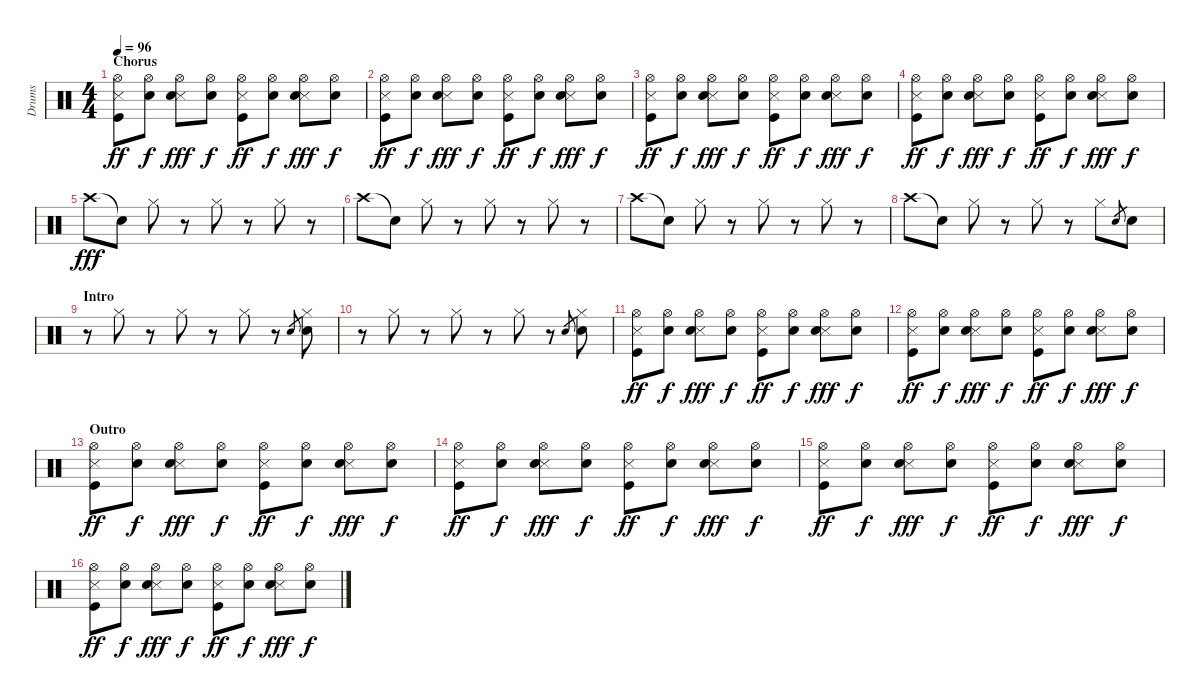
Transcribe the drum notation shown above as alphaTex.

\track ("Drums" "Drums") {instrument percussion}
\staff {score}
\articulation defaults
\ts (4 4)
\section ("" "Chorus")
\tempo 96
\clef neutral
\ks c
("Snare (side stick) 3" "Hi-Hat (open)" "Kick (hit)").8{dy ff} ("Hand Clap (hit)" "Hi-Hat (open)").8{dy f} ("Snare (side stick) 3" "Hi-Hat (open)" "Snare (hit) 2").8{dy fff} ("Hand Clap (hit)" "Hi-Hat (open)").8{dy f} ("Snare (side stick) 3" "Hi-Hat (open)" "Kick (hit)").8{dy ff} ("Hand Clap (hit)" "Hi-Hat (open)").8{dy f} ("Snare (side stick) 3" "Hi-Hat (open)" "Snare (hit) 2").8{dy fff} ("Hand Clap (hit)" "Hi-Hat (open)").8{dy f} |
("Snare (side stick) 3" "Hi-Hat (open)" "Kick (hit)").8{dy ff} ("Hand Clap (hit)" "Hi-Hat (open)").8{dy f} ("Snare (side stick) 3" "Hi-Hat (open)" "Snare (hit) 2").8{dy fff} ("Hand Clap (hit)" "Hi-Hat (open)").8{dy f} ("Snare (side stick) 3" "Hi-Hat (open)" "Kick (hit)").8{dy ff} ("Hand Clap (hit)" "Hi-Hat (open)").8{dy f} ("Snare (side stick) 3" "Hi-Hat (open)" "Snare (hit) 2").8{dy fff} ("Hand Clap (hit)" "Hi-Hat (open)").8{dy f} |
("Snare (side stick) 3" "Hi-Hat (open)" "Kick (hit)").8{dy ff} ("Hand Clap (hit)" "Hi-Hat (open)").8{dy f} ("Snare (side stick) 3" "Hi-Hat (open)" "Snare (hit) 2").8{dy fff} ("Hand Clap (hit)" "Hi-Hat (open)").8{dy f} ("Snare (side stick) 3" "Hi-Hat (open)" "Kick (hit)").8{dy ff} ("Hand Clap (hit)" "Hi-Hat (open)").8{dy f} ("Snare (side stick) 3" "Hi-Hat (open)" "Snare (hit) 2").8{dy fff} ("Hand Clap (hit)" "Hi-Hat (open)").8{dy f} |
("Snare (side stick) 3" "Hi-Hat (open)" "Kick (hit)").8{dy ff} ("Hand Clap (hit)" "Hi-Hat (open)").8{dy f} ("Snare (side stick) 3" "Hi-Hat (open)" "Snare (hit) 2").8{dy fff} ("Hand Clap (hit)" "Hi-Hat (open)").8{dy f} ("Snare (side stick) 3" "Hi-Hat (open)" "Kick (hit)").8{dy ff} ("Hand Clap (hit)" "Hi-Hat (open)").8{dy f} ("Snare (side stick) 3" "Hi-Hat (open)" "Snare (hit) 2").8{dy fff} ("Hand Clap (hit)" "Hi-Hat (open)").8{dy f} |
"Crash high (hit)".8{dy fff} "Snare (hit)"{t}.8 "Hi-Hat (closed)".8 r.8 "Hi-Hat (closed)".8 r.8 "Hi-Hat (closed)".8 r.8 |
"Crash high (hit)".8 "Snare (hit)"{t}.8 "Hi-Hat (closed)".8 r.8 "Hi-Hat (closed)".8 r.8 "Hi-Hat (closed)".8 r.8 |
"Crash high (hit)".8 "Snare (hit)"{t}.8 "Hi-Hat (closed)".8 r.8 "Hi-Hat (closed)".8 r.8 "Hi-Hat (closed)".8 r.8 |
"Crash high (hit)".8 "Snare (hit)"{t}.8 "Hi-Hat (closed)".8 r.8 "Hi-Hat (closed)".8 r.8 "Hi-Hat (closed)".8 "Electric Snare (hit)".8{gr} "Snare (hit) 2".8 |
\section ("" "Intro")
r.8 "Hi-Hat (closed)".8 r.8 "Hi-Hat (closed)".8 r.8 "Hi-Hat (closed)".8 r.8 "Electric Snare (hit)".8{gr} ("Hi-Hat (closed)" "Snare (hit) 2").8 |
r.8 "Hi-Hat (closed)".8 r.8 "Hi-Hat (closed)".8 r.8 "Hi-Hat (closed)".8 r.8 "Electric Snare (hit)".8{gr} ("Hi-Hat (closed)" "Snare (hit) 2").8 |
("Snare (side stick) 3" "Hi-Hat (open)" "Kick (hit)").8{dy ff} ("Hand Clap (hit)" "Hi-Hat (open)").8{dy f} ("Snare (side stick) 3" "Hi-Hat (open)" "Snare (hit) 2").8{dy fff} ("Hand Clap (hit)" "Hi-Hat (open)").8{dy f} ("Snare (side stick) 3" "Hi-Hat (open)" "Kick (hit)").8{dy ff} ("Hand Clap (hit)" "Hi-Hat (open)").8{dy f} ("Snare (side stick) 3" "Hi-Hat (open)" "Snare (hit) 2").8{dy fff} ("Hand Clap (hit)" "Hi-Hat (open)").8{dy f} |
("Snare (side stick) 3" "Hi-Hat (open)" "Kick (hit)").8{dy ff} ("Hand Clap (hit)" "Hi-Hat (open)").8{dy f} ("Snare (side stick) 3" "Hi-Hat (open)" "Snare (hit) 2").8{dy fff} ("Hand Clap (hit)" "Hi-Hat (open)").8{dy f} ("Snare (side stick) 3" "Hi-Hat (open)" "Kick (hit)").8{dy ff} ("Hand Clap (hit)" "Hi-Hat (open)").8{dy f} ("Snare (side stick) 3" "Hi-Hat (open)" "Snare (hit) 2").8{dy fff} ("Hand Clap (hit)" "Hi-Hat (open)").8{dy f} |
\section ("" "Outro")
("Snare (side stick) 3" "Hi-Hat (open)" "Kick (hit)").8{dy ff} ("Hand Clap (hit)" "Hi-Hat (open)").8{dy f} ("Snare (side stick) 3" "Hi-Hat (open)" "Snare (hit) 2").8{dy fff} ("Hand Clap (hit)" "Hi-Hat (open)").8{dy f} ("Snare (side stick) 3" "Hi-Hat (open)" "Kick (hit)").8{dy ff} ("Hand Clap (hit)" "Hi-Hat (open)").8{dy f} ("Snare (side stick) 3" "Hi-Hat (open)" "Snare (hit) 2").8{dy fff} ("Hand Clap (hit)" "Hi-Hat (open)").8{dy f} |
("Snare (side stick) 3" "Hi-Hat (open)" "Kick (hit)").8{dy ff} ("Hand Clap (hit)" "Hi-Hat (open)").8{dy f} ("Snare (side stick) 3" "Hi-Hat (open)" "Snare (hit) 2").8{dy fff} ("Hand Clap (hit)" "Hi-Hat (open)").8{dy f} ("Snare (side stick) 3" "Hi-Hat (open)" "Kick (hit)").8{dy ff} ("Hand Clap (hit)" "Hi-Hat (open)").8{dy f} ("Snare (side stick) 3" "Hi-Hat (open)" "Snare (hit) 2").8{dy fff} ("Hand Clap (hit)" "Hi-Hat (open)").8{dy f} |
("Snare (side stick) 3" "Hi-Hat (open)" "Kick (hit)").8{dy ff} ("Hand Clap (hit)" "Hi-Hat (open)").8{dy f} ("Snare (side stick) 3" "Hi-Hat (open)" "Snare (hit) 2").8{dy fff} ("Hand Clap (hit)" "Hi-Hat (open)").8{dy f} ("Snare (side stick) 3" "Hi-Hat (open)" "Kick (hit)").8{dy ff} ("Hand Clap (hit)" "Hi-Hat (open)").8{dy f} ("Snare (side stick) 3" "Hi-Hat (open)" "Snare (hit) 2").8{dy fff} ("Hand Clap (hit)" "Hi-Hat (open)").8{dy f} |
("Snare (side stick) 3" "Hi-Hat (open)" "Kick (hit)").8{dy ff} ("Hand Clap (hit)" "Hi-Hat (open)").8{dy f} ("Snare (side stick) 3" "Hi-Hat (open)" "Snare (hit) 2").8{dy fff} ("Hand Clap (hit)" "Hi-Hat (open)").8{dy f} ("Snare (side stick) 3" "Hi-Hat (open)" "Kick (hit)").8{dy ff} ("Hand Clap (hit)" "Hi-Hat (open)").8{dy f} ("Snare (side stick) 3" "Hi-Hat (open)" "Snare (hit) 2").8{dy fff} ("Hand Clap (hit)" "Hi-Hat (open)").8{dy f}
